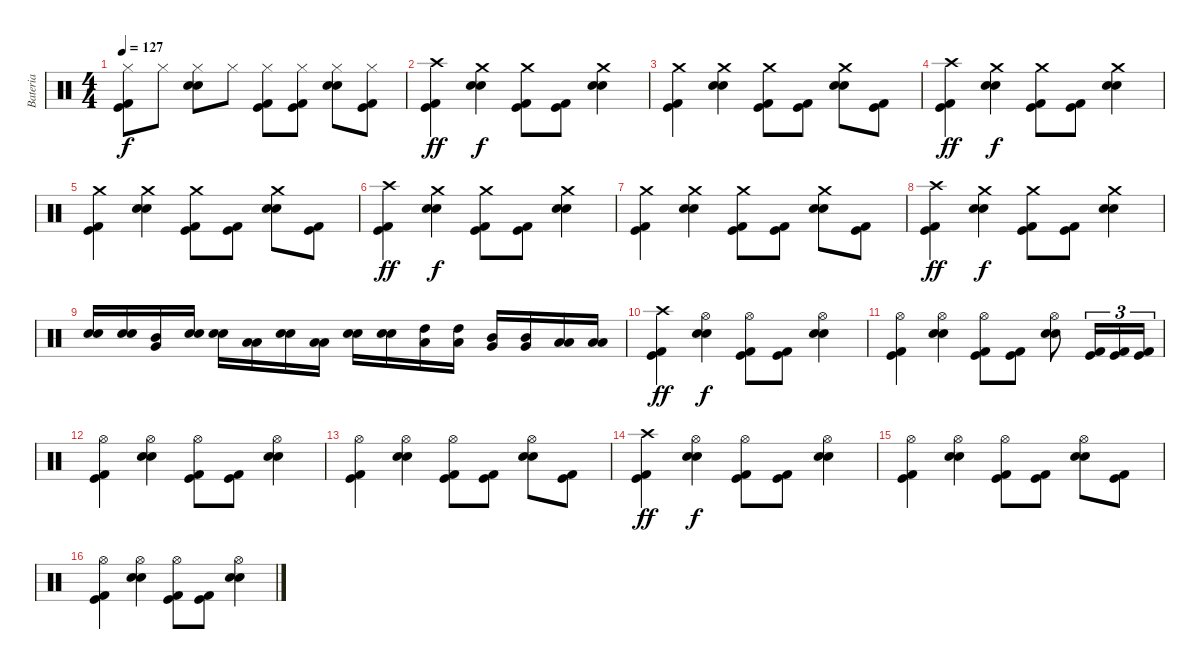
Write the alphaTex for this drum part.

\track ("Bateria" "Bateria") {instrument percussion}
\staff {score}
\articulation defaults
\ts (4 4)
\tempo 127
\clef neutral
\ks c
("Hi-Hat (closed)" "Kick (hit) 2" "Kick (hit)").8{dy f} "Hi-Hat (closed)".8 ("Hi-Hat (closed)" "Electric Snare (hit)" "Snare (hit) 2").8 "Hi-Hat (closed)".8 ("Hi-Hat (closed)" "Kick (hit) 2" "Kick (hit)").8 ("Hi-Hat (closed)" "Kick (hit) 2" "Kick (hit)").8 ("Hi-Hat (closed)" "Electric Snare (hit)" "Snare (hit) 2").8 ("Hi-Hat (closed)" "Kick (hit) 2" "Kick (hit)").8 |
("Crash high (hit)" "Kick (hit) 2" "Kick (hit)").4{dy ff} ("Crash medium (hit)" "Electric Snare (hit)" "Snare (hit) 2").4{dy f} ("Crash medium (hit)" "Kick (hit) 2" "Kick (hit)").8 ("Kick (hit) 2" "Kick (hit)").8 ("Crash medium (hit)" "Electric Snare (hit)" "Snare (hit) 2").4 |
("Crash medium (hit)" "Kick (hit) 2" "Kick (hit)").4 ("Crash medium (hit)" "Electric Snare (hit)" "Snare (hit) 2").4 ("Crash medium (hit)" "Kick (hit) 2" "Kick (hit)").8 ("Kick (hit) 2" "Kick (hit)").8 ("Crash medium (hit)" "Electric Snare (hit)" "Snare (hit) 2").8 ("Kick (hit) 2" "Kick (hit)").8 |
("Crash high (hit)" "Kick (hit) 2" "Kick (hit)").4{dy ff} ("Crash medium (hit)" "Electric Snare (hit)" "Snare (hit) 2").4{dy f} ("Crash medium (hit)" "Kick (hit) 2" "Kick (hit)").8 ("Kick (hit) 2" "Kick (hit)").8 ("Crash medium (hit)" "Electric Snare (hit)" "Snare (hit) 2").4 |
("Crash medium (hit)" "Kick (hit) 2" "Kick (hit)").4 ("Crash medium (hit)" "Electric Snare (hit)" "Snare (hit) 2").4 ("Crash medium (hit)" "Kick (hit) 2" "Kick (hit)").8 ("Kick (hit) 2" "Kick (hit)").8 ("Crash medium (hit)" "Electric Snare (hit)" "Snare (hit) 2").8 ("Kick (hit) 2" "Kick (hit)").8 |
("Crash high (hit)" "Kick (hit) 2" "Kick (hit)").4{dy ff} ("Crash medium (hit)" "Electric Snare (hit)" "Snare (hit) 2").4{dy f} ("Crash medium (hit)" "Kick (hit) 2" "Kick (hit)").8 ("Kick (hit) 2" "Kick (hit)").8 ("Crash medium (hit)" "Electric Snare (hit)" "Snare (hit) 2").4 |
("Crash medium (hit)" "Kick (hit) 2" "Kick (hit)").4 ("Crash medium (hit)" "Electric Snare (hit)" "Snare (hit) 2").4 ("Crash medium (hit)" "Kick (hit) 2" "Kick (hit)").8 ("Kick (hit) 2" "Kick (hit)").8 ("Crash medium (hit)" "Electric Snare (hit)" "Snare (hit) 2").8 ("Kick (hit) 2" "Kick (hit)").8 |
("Crash high (hit)" "Kick (hit) 2" "Kick (hit)").4{dy ff} ("Crash medium (hit)" "Electric Snare (hit)" "Snare (hit) 2").4{dy f} ("Crash medium (hit)" "Kick (hit) 2" "Kick (hit)").8 ("Kick (hit) 2" "Kick (hit)").8 ("Crash medium (hit)" "Electric Snare (hit)" "Snare (hit) 2").4 |
("Electric Snare (hit)" "Snare (hit) 2").16 ("Electric Snare (hit)" "Snare (hit) 2").16 ("Mid Tom (hit)" "Very Low Tom (hit)").16 ("Electric Snare (hit)" "Snare (hit) 2").16 ("Electric Snare (hit)" "Snare (hit) 2").16 ("Low Tom (hit)" "Low Floor Tom (hit)").16 ("Electric Snare (hit)" "Snare (hit) 2").16 ("Low Tom (hit)" "Low Floor Tom (hit)").16 ("Electric Snare (hit)" "Snare (hit) 2").16 ("Electric Snare (hit)" "Snare (hit) 2").16 ("High Tom (hit)" "Low Tom (hit)").16 ("High Tom (hit)" "Low Tom (hit)").16 ("Mid Tom (hit)" "Very Low Tom (hit)").16 ("Mid Tom (hit)" "Very Low Tom (hit)").16 ("Low Tom (hit)" "Low Floor Tom (hit)").16 ("Low Tom (hit)" "Low Floor Tom (hit)").16 |
("Crash high (hit)" "Kick (hit) 2" "Kick (hit)").4{dy ff} ("Hi-Hat (open)" "Electric Snare (hit)" "Snare (hit) 2").4{dy f} ("Hi-Hat (open)" "Kick (hit) 2" "Kick (hit)").8 ("Kick (hit) 2" "Kick (hit)").8 ("Hi-Hat (open)" "Electric Snare (hit)" "Snare (hit) 2").4 |
("Hi-Hat (open)" "Kick (hit) 2" "Kick (hit)").4 ("Hi-Hat (open)" "Electric Snare (hit)" "Snare (hit) 2").4 ("Hi-Hat (open)" "Kick (hit) 2" "Kick (hit)").8 ("Kick (hit) 2" "Kick (hit)").8 ("Hi-Hat (open)" "Electric Snare (hit)" "Snare (hit) 2").8 ("Kick (hit) 2" "Kick (hit)").16{tu (3 2)} ("Kick (hit) 2" "Kick (hit)").16{tu (3 2)} ("Kick (hit) 2" "Kick (hit)").16{tu (3 2)} |
("Hi-Hat (open)" "Kick (hit) 2" "Kick (hit)").4 ("Hi-Hat (open)" "Electric Snare (hit)" "Snare (hit) 2").4 ("Hi-Hat (open)" "Kick (hit) 2" "Kick (hit)").8 ("Kick (hit) 2" "Kick (hit)").8 ("Hi-Hat (open)" "Electric Snare (hit)" "Snare (hit) 2").4 |
("Hi-Hat (open)" "Kick (hit) 2" "Kick (hit)").4 ("Hi-Hat (open)" "Electric Snare (hit)" "Snare (hit) 2").4 ("Hi-Hat (open)" "Kick (hit) 2" "Kick (hit)").8 ("Kick (hit) 2" "Kick (hit)").8 ("Hi-Hat (open)" "Electric Snare (hit)" "Snare (hit) 2").8 ("Kick (hit) 2" "Kick (hit)").8 |
("Crash high (hit)" "Kick (hit) 2" "Kick (hit)").4{dy ff} ("Hi-Hat (open)" "Electric Snare (hit)" "Snare (hit) 2").4{dy f} ("Hi-Hat (open)" "Kick (hit) 2" "Kick (hit)").8 ("Kick (hit) 2" "Kick (hit)").8 ("Hi-Hat (open)" "Electric Snare (hit)" "Snare (hit) 2").4 |
("Hi-Hat (open)" "Kick (hit) 2" "Kick (hit)").4 ("Hi-Hat (open)" "Electric Snare (hit)" "Snare (hit) 2").4 ("Hi-Hat (open)" "Kick (hit) 2" "Kick (hit)").8 ("Kick (hit) 2" "Kick (hit)").8 ("Hi-Hat (open)" "Electric Snare (hit)" "Snare (hit) 2").8 ("Kick (hit) 2" "Kick (hit)").8 |
("Hi-Hat (open)" "Kick (hit) 2" "Kick (hit)").4 ("Hi-Hat (open)" "Electric Snare (hit)" "Snare (hit) 2").4 ("Hi-Hat (open)" "Kick (hit) 2" "Kick (hit)").8 ("Kick (hit) 2" "Kick (hit)").8 ("Hi-Hat (open)" "Electric Snare (hit)" "Snare (hit) 2").4
